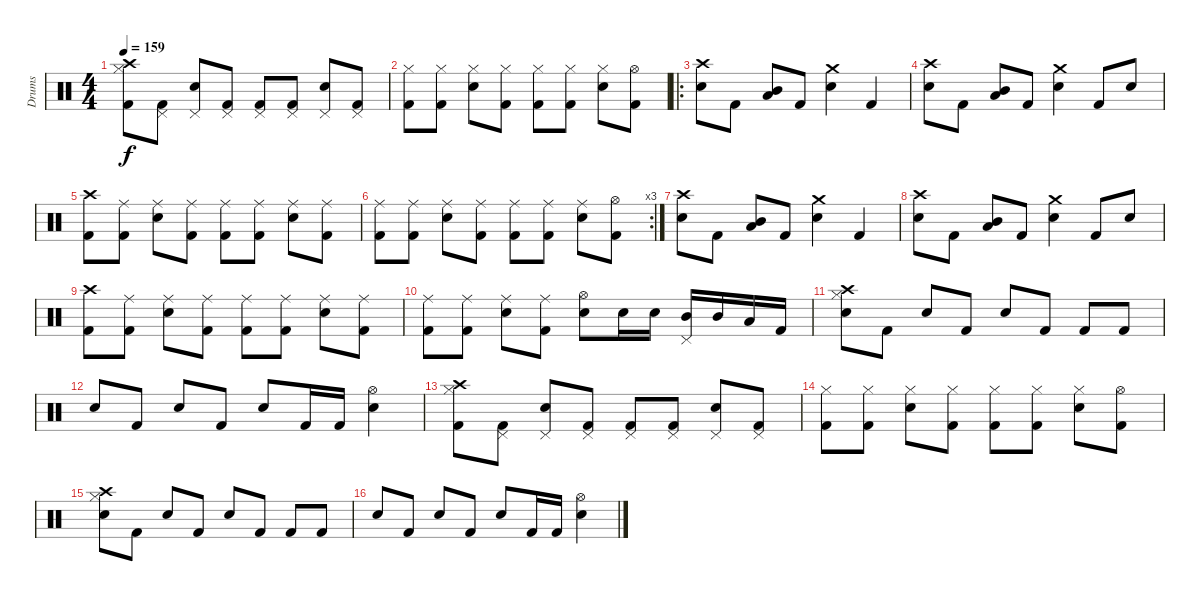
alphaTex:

\track ("Drums" "Drums") {instrument percussion}
\staff {score}
\articulation defaults
\ts (4 4)
\tempo 159
\clef neutral
\ks c
("Crash high (hit)" "Hi-Hat (closed)" "Kick (hit) 2").8{dy f} ("Pedal Hi-Hat (hit)" "Kick (hit) 2").8 ("Pedal Hi-Hat (hit)" "Snare (hit) 2").8 ("Pedal Hi-Hat (hit)" "Kick (hit) 2").8 ("Pedal Hi-Hat (hit)" "Kick (hit) 2").8 ("Pedal Hi-Hat (hit)" "Kick (hit) 2").8 ("Pedal Hi-Hat (hit)" "Snare (hit) 2").8 ("Pedal Hi-Hat (hit)" "Kick (hit) 2").8 |
("Hi-Hat (closed)" "Kick (hit) 2").8 ("Hi-Hat (closed)" "Kick (hit) 2").8 ("Hi-Hat (closed)" "Snare (hit) 2").8 ("Hi-Hat (closed)" "Kick (hit) 2").8 ("Hi-Hat (closed)" "Kick (hit) 2").8 ("Hi-Hat (closed)" "Kick (hit) 2").8 ("Hi-Hat (closed)" "Snare (hit) 2").8 ("Hi-Hat (open)" "Kick (hit) 2").8 |
\ro
("Crash high (hit)" "Snare (hit) 2").8 "Kick (hit) 2".8 ("Mid Tom (hit)" "Low Floor Tom (hit)").8 "Kick (hit) 2".8 ("Crash medium (hit)" "Snare (hit) 2").4 "Kick (hit) 2".4 |
("Crash high (hit)" "Snare (hit) 2").8 "Kick (hit) 2".8 ("Mid Tom (hit)" "Low Floor Tom (hit)").8 "Kick (hit) 2".8 ("Crash medium (hit)" "Snare (hit) 2").4 "Kick (hit) 2".8 "Snare (hit) 2".8 |
("Crash high (hit)" "Kick (hit) 2").8 ("Ride (middle)" "Kick (hit) 2").8 ("Ride (middle)" "Snare (hit) 2").8 ("Ride (middle)" "Kick (hit) 2").8 ("Ride (middle)" "Kick (hit) 2").8 ("Ride (middle)" "Kick (hit) 2").8 ("Ride (middle)" "Snare (hit) 2").8 ("Ride (middle)" "Kick (hit) 2").8 |
\rc 3
("Ride (middle)" "Kick (hit) 2").8 ("Ride (middle)" "Kick (hit) 2").8 ("Ride (middle)" "Snare (hit) 2").8 ("Ride (middle)" "Kick (hit) 2").8 ("Ride (middle)" "Kick (hit) 2").8 ("Ride (middle)" "Kick (hit) 2").8 ("Ride (middle)" "Snare (hit) 2").8 ("Hi-Hat (open)" "Kick (hit) 2").8 |
("Crash high (hit)" "Snare (hit) 2").8 "Kick (hit) 2".8 ("Mid Tom (hit)" "Low Floor Tom (hit)").8 "Kick (hit) 2".8 ("Crash medium (hit)" "Snare (hit) 2").4 "Kick (hit) 2".4 |
("Crash high (hit)" "Snare (hit) 2").8 "Kick (hit) 2".8 ("Mid Tom (hit)" "Low Floor Tom (hit)").8 "Kick (hit) 2".8 ("Crash medium (hit)" "Snare (hit) 2").4 "Kick (hit) 2".8 "Snare (hit) 2".8 |
("Crash high (hit)" "Kick (hit) 2").8 ("Ride (middle)" "Kick (hit) 2").8 ("Ride (middle)" "Snare (hit) 2").8 ("Ride (middle)" "Kick (hit) 2").8 ("Ride (middle)" "Kick (hit) 2").8 ("Ride (middle)" "Kick (hit) 2").8 ("Ride (middle)" "Snare (hit) 2").8 ("Ride (middle)" "Kick (hit) 2").8 |
("Ride (middle)" "Kick (hit) 2").8 ("Ride (middle)" "Kick (hit) 2").8 ("Ride (middle)" "Snare (hit) 2").8 ("Ride (middle)" "Kick (hit) 2").8 ("Hi-Hat (open)" "Snare (hit) 2").8 "Snare (hit) 2".16 "Snare (hit) 2".16 ("Pedal Hi-Hat (hit)" "Mid Tom (hit)").16 "Mid Tom (hit)".16 "Low Floor Tom (hit)".16 "Kick (hit) 2".16 |
("Crash high (hit)" "Hi-Hat (closed)" "Snare (hit) 2").8 "Kick (hit) 2".8 "Snare (hit) 2".8 "Kick (hit) 2".8 "Snare (hit) 2".8 "Kick (hit) 2".8 "Kick (hit) 2".8 "Kick (hit) 2".8 |
"Snare (hit) 2".8 "Kick (hit) 2".8 "Snare (hit) 2".8 "Kick (hit) 2".8 "Snare (hit) 2".8 "Kick (hit) 2".16 "Kick (hit) 2".16 ("Hi-Hat (open)" "Snare (hit) 2").4 |
("Crash high (hit)" "Hi-Hat (closed)" "Kick (hit) 2").8 ("Pedal Hi-Hat (hit)" "Kick (hit) 2").8 ("Pedal Hi-Hat (hit)" "Snare (hit) 2").8 ("Pedal Hi-Hat (hit)" "Kick (hit) 2").8 ("Pedal Hi-Hat (hit)" "Kick (hit) 2").8 ("Pedal Hi-Hat (hit)" "Kick (hit) 2").8 ("Pedal Hi-Hat (hit)" "Snare (hit) 2").8 ("Pedal Hi-Hat (hit)" "Kick (hit) 2").8 |
("Hi-Hat (closed)" "Kick (hit) 2").8 ("Hi-Hat (closed)" "Kick (hit) 2").8 ("Hi-Hat (closed)" "Snare (hit) 2").8 ("Hi-Hat (closed)" "Kick (hit) 2").8 ("Hi-Hat (closed)" "Kick (hit) 2").8 ("Hi-Hat (closed)" "Kick (hit) 2").8 ("Hi-Hat (closed)" "Snare (hit) 2").8 ("Hi-Hat (open)" "Kick (hit) 2").8 |
("Crash high (hit)" "Hi-Hat (closed)" "Snare (hit) 2").8 "Kick (hit) 2".8 "Snare (hit) 2".8 "Kick (hit) 2".8 "Snare (hit) 2".8 "Kick (hit) 2".8 "Kick (hit) 2".8 "Kick (hit) 2".8 |
"Snare (hit) 2".8 "Kick (hit) 2".8 "Snare (hit) 2".8 "Kick (hit) 2".8 "Snare (hit) 2".8 "Kick (hit) 2".16 "Kick (hit) 2".16 ("Hi-Hat (open)" "Snare (hit) 2").4
